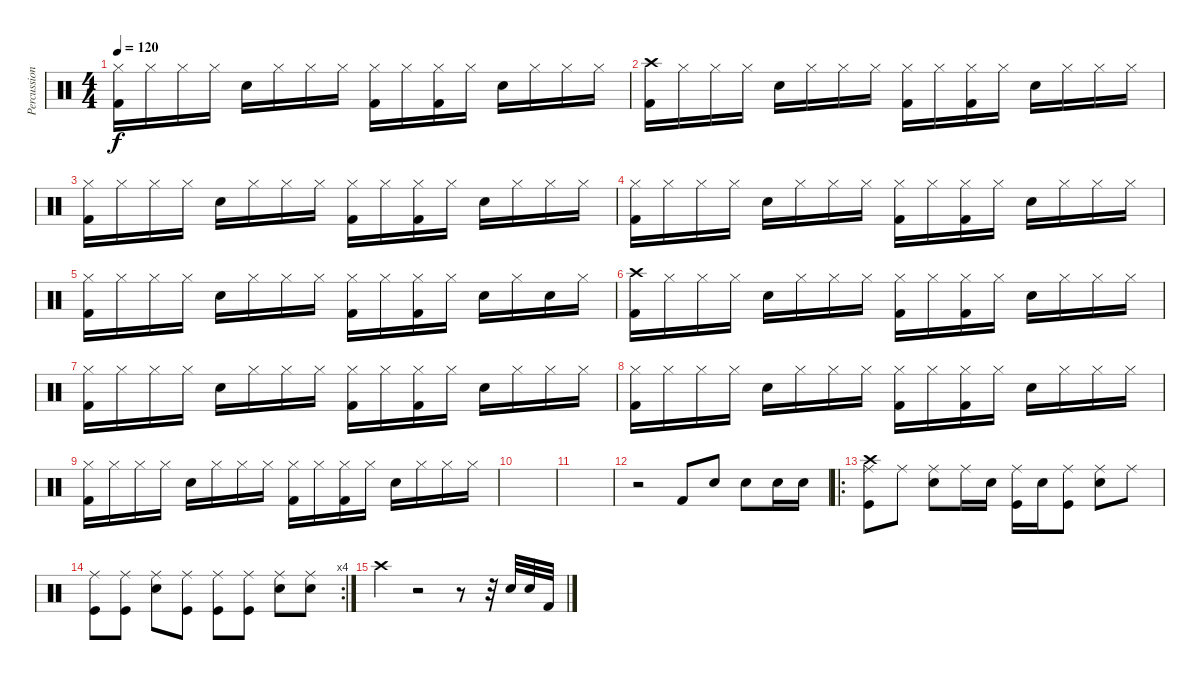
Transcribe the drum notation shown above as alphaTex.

\track ("Percussions" "Percussion") {instrument percussion}
\staff {score}
\articulation defaults
\ts (4 4)
\tempo 120
\clef neutral
\ks c
("Hi-Hat (closed)" "Kick (hit) 2").16{dy f} "Hi-Hat (closed)".16 "Hi-Hat (closed)".16 "Hi-Hat (closed)".16 "Snare (hit) 2".16 "Hi-Hat (closed)".16 "Hi-Hat (closed)".16 "Hi-Hat (closed)".16 ("Hi-Hat (closed)" "Kick (hit) 2").16 "Hi-Hat (closed)".16 ("Kick (hit) 2" "Hi-Hat (closed)").16 "Hi-Hat (closed)".16 "Snare (hit) 2".16 "Hi-Hat (closed)".16 "Hi-Hat (closed)".16 "Hi-Hat (closed)".16 |
("Crash high (hit)" "Kick (hit) 2").16 "Hi-Hat (closed)".16 "Hi-Hat (closed)".16 "Hi-Hat (closed)".16 "Snare (hit) 2".16 "Hi-Hat (closed)".16 "Hi-Hat (closed)".16 "Hi-Hat (closed)".16 ("Hi-Hat (closed)" "Kick (hit) 2").16 "Hi-Hat (closed)".16 ("Kick (hit) 2" "Hi-Hat (closed)").16 "Hi-Hat (closed)".16 "Snare (hit) 2".16 "Hi-Hat (closed)".16 "Hi-Hat (closed)".16 "Hi-Hat (closed)".16 |
("Hi-Hat (closed)" "Kick (hit) 2").16 "Hi-Hat (closed)".16 "Hi-Hat (closed)".16 "Hi-Hat (closed)".16 "Snare (hit) 2".16 "Hi-Hat (closed)".16 "Hi-Hat (closed)".16 "Hi-Hat (closed)".16 ("Hi-Hat (closed)" "Kick (hit) 2").16 "Hi-Hat (closed)".16 ("Kick (hit) 2" "Hi-Hat (closed)").16 "Hi-Hat (closed)".16 "Snare (hit) 2".16 "Hi-Hat (closed)".16 "Hi-Hat (closed)".16 "Hi-Hat (closed)".16 |
("Hi-Hat (closed)" "Kick (hit) 2").16 "Hi-Hat (closed)".16 "Hi-Hat (closed)".16 "Hi-Hat (closed)".16 "Snare (hit) 2".16 "Hi-Hat (closed)".16 "Hi-Hat (closed)".16 "Hi-Hat (closed)".16 ("Hi-Hat (closed)" "Kick (hit) 2").16 "Hi-Hat (closed)".16 ("Kick (hit) 2" "Hi-Hat (closed)").16 "Hi-Hat (closed)".16 "Snare (hit) 2".16 "Hi-Hat (closed)".16 "Hi-Hat (closed)".16 "Hi-Hat (closed)".16 |
("Hi-Hat (closed)" "Kick (hit) 2").16 "Hi-Hat (closed)".16 "Hi-Hat (closed)".16 "Hi-Hat (closed)".16 "Snare (hit) 2".16 "Hi-Hat (closed)".16 "Hi-Hat (closed)".16 "Hi-Hat (closed)".16 ("Hi-Hat (closed)" "Kick (hit) 2").16 "Hi-Hat (closed)".16 ("Kick (hit) 2" "Hi-Hat (closed)").16 "Hi-Hat (closed)".16 "Snare (hit) 2".16 "Hi-Hat (closed)".16 "Snare (hit) 2".16 "Hi-Hat (closed)".16 |
("Crash high (hit)" "Kick (hit) 2").16 "Hi-Hat (closed)".16 "Hi-Hat (closed)".16 "Hi-Hat (closed)".16 "Snare (hit) 2".16 "Hi-Hat (closed)".16 "Hi-Hat (closed)".16 "Hi-Hat (closed)".16 ("Hi-Hat (closed)" "Kick (hit) 2").16 "Hi-Hat (closed)".16 ("Kick (hit) 2" "Hi-Hat (closed)").16 "Hi-Hat (closed)".16 "Snare (hit) 2".16 "Hi-Hat (closed)".16 "Hi-Hat (closed)".16 "Hi-Hat (closed)".16 |
("Hi-Hat (closed)" "Kick (hit) 2").16 "Hi-Hat (closed)".16 "Hi-Hat (closed)".16 "Hi-Hat (closed)".16 "Snare (hit) 2".16 "Hi-Hat (closed)".16 "Hi-Hat (closed)".16 "Hi-Hat (closed)".16 ("Hi-Hat (closed)" "Kick (hit) 2").16 "Hi-Hat (closed)".16 ("Kick (hit) 2" "Hi-Hat (closed)").16 "Hi-Hat (closed)".16 "Snare (hit) 2".16 "Hi-Hat (closed)".16 "Hi-Hat (closed)".16 "Hi-Hat (closed)".16 |
("Hi-Hat (closed)" "Kick (hit) 2").16 "Hi-Hat (closed)".16 "Hi-Hat (closed)".16 "Hi-Hat (closed)".16 "Snare (hit) 2".16 "Hi-Hat (closed)".16 "Hi-Hat (closed)".16 "Hi-Hat (closed)".16 ("Hi-Hat (closed)" "Kick (hit) 2").16 "Hi-Hat (closed)".16 ("Kick (hit) 2" "Hi-Hat (closed)").16 "Hi-Hat (closed)".16 "Snare (hit) 2".16 "Hi-Hat (closed)".16 "Hi-Hat (closed)".16 "Hi-Hat (closed)".16 |
("Hi-Hat (closed)" "Kick (hit) 2").16 "Hi-Hat (closed)".16 "Hi-Hat (closed)".16 "Hi-Hat (closed)".16 "Snare (hit) 2".16 "Hi-Hat (closed)".16 "Hi-Hat (closed)".16 "Hi-Hat (closed)".16 ("Hi-Hat (closed)" "Kick (hit) 2").16 "Hi-Hat (closed)".16 ("Kick (hit) 2" "Hi-Hat (closed)").16 "Hi-Hat (closed)".16 "Snare (hit) 2".16 "Hi-Hat (closed)".16 "Hi-Hat (closed)".16 "Hi-Hat (closed)".16 |
|
|
r.2 "Kick (hit) 2".8 "Snare (hit) 2".8 "Snare (hit) 2".8 "Snare (hit) 2".16 "Snare (hit) 2".16 |
\ro
("Crash high (hit)" "Kick (hit)" "Ride (middle)").8 "Ride (middle)".8 ("Electric Snare (hit)" "Ride (middle)").8 "Ride (middle)".16 "Electric Snare (hit)".16 ("Kick (hit)" "Ride (middle)").16 "Electric Snare (hit)".16 ("Kick (hit)" "Ride (middle)").8 ("Electric Snare (hit)" "Ride (middle)").8 "Ride (middle)".8 |
\rc 4
("Kick (hit)" "Ride (middle)").8 ("Kick (hit)" "Ride (middle)").8 ("Electric Snare (hit)" "Ride (middle)").8 ("Kick (hit)" "Ride (middle)").8 ("Kick (hit)" "Ride (middle)").8 ("Kick (hit)" "Ride (middle)").8 ("Electric Snare (hit)" "Ride (middle)").8 ("Electric Snare (hit)" "Ride (middle)").8 |
"Crash high (hit)".4 r.2 r.8 r.32 "Snare (hit) 2".32 "Snare (hit) 2".32 "Kick (hit) 2".32
